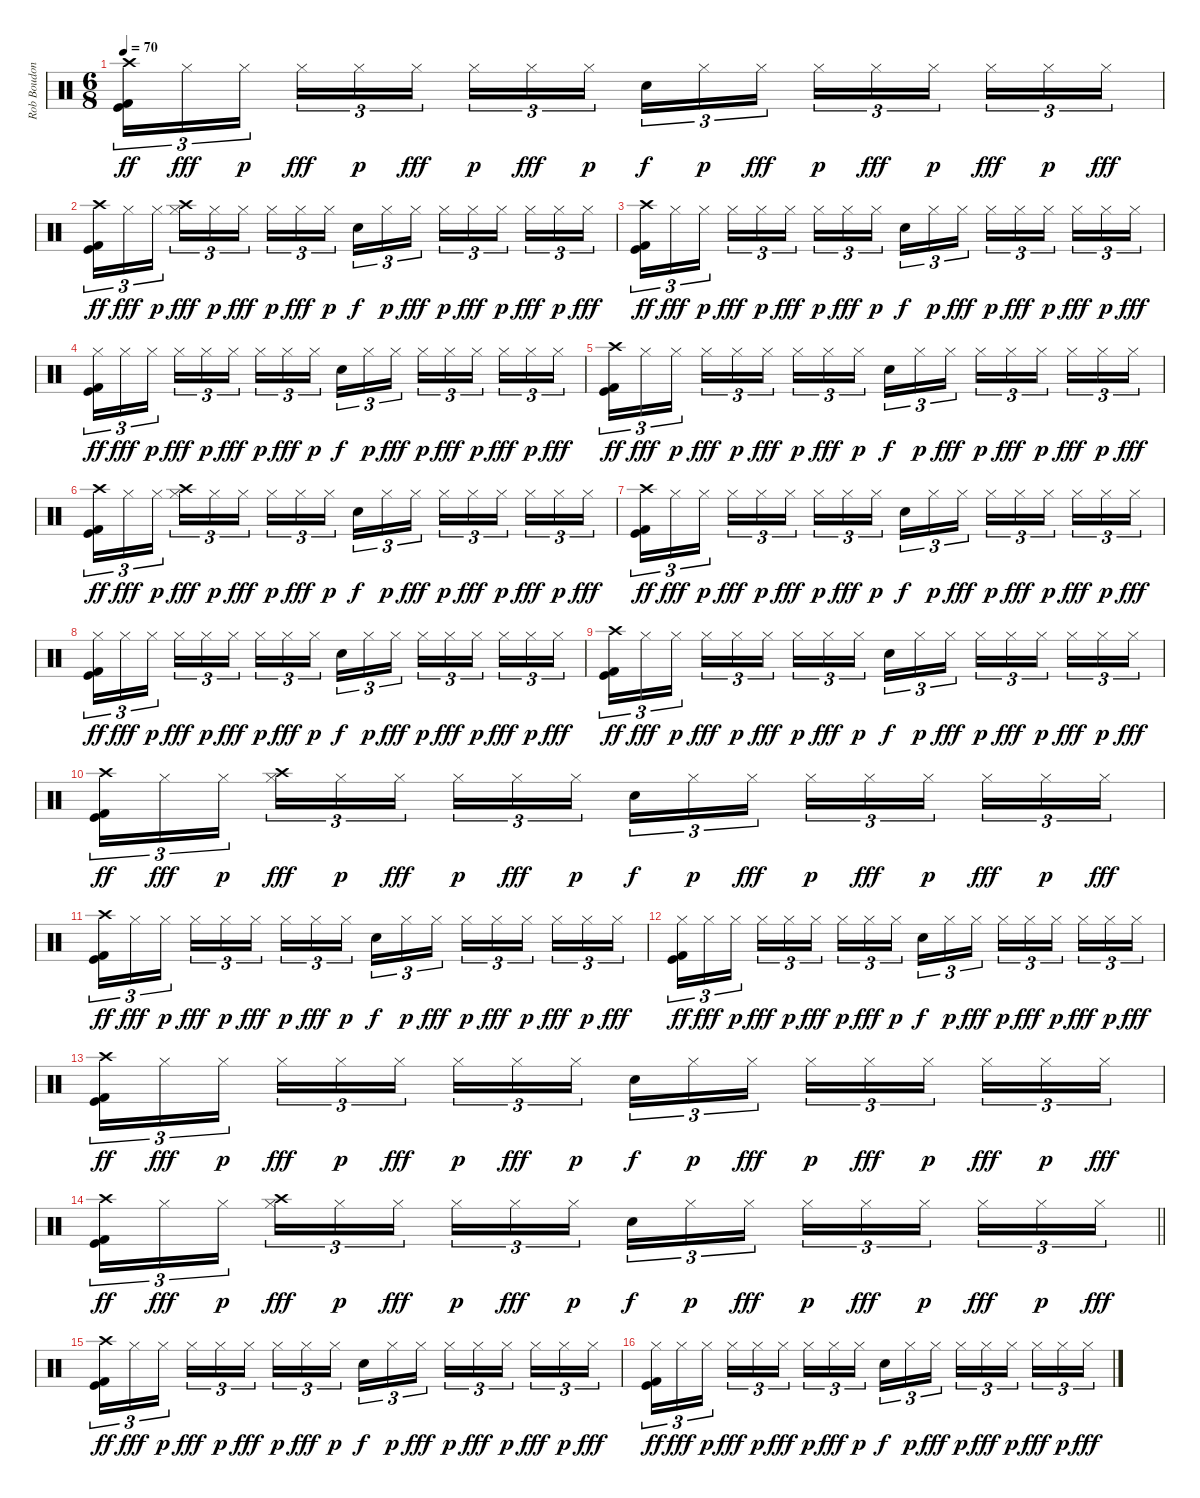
\track ("Rob Boudon [Drums]" "Rob Boudon") {instrument percussion}
\staff {score}
\articulation defaults
\ts (6 8)
\tempo 70
\clef neutral
\ks c
("Crash high (hit)" "Kick (hit) 2" "Kick (hit)").16{tu (3 2) dy ff} "Hi-Hat (closed)".16{tu (3 2) dy fff} "Hi-Hat (closed)".16{tu (3 2) dy p beam splitsecondary} "Hi-Hat (closed)".16{tu (3 2) dy fff} "Hi-Hat (closed)".16{tu (3 2) dy p} "Hi-Hat (closed)".16{tu (3 2) dy fff beam splitsecondary} "Hi-Hat (closed)".16{tu (3 2) dy p} "Hi-Hat (closed)".16{tu (3 2) dy fff} "Hi-Hat (closed)".16{tu (3 2) dy p} "Electric Snare (hit)".16{tu (3 2) dy f} "Hi-Hat (closed)".16{tu (3 2) dy p} "Hi-Hat (closed)".16{tu (3 2) dy fff beam splitsecondary} "Hi-Hat (closed)".16{tu (3 2) dy p} "Hi-Hat (closed)".16{tu (3 2) dy fff} "Hi-Hat (closed)".16{tu (3 2) dy p beam splitsecondary} "Hi-Hat (closed)".16{tu (3 2) dy fff} "Hi-Hat (closed)".16{tu (3 2) dy p} "Hi-Hat (closed)".16{tu (3 2) dy fff} |
("Crash high (hit)" "Kick (hit) 2" "Kick (hit)").16{tu (3 2) dy ff} "Hi-Hat (closed)".16{tu (3 2) dy fff} "Hi-Hat (closed)".16{tu (3 2) dy p beam splitsecondary} ("Crash high (hit)" "Hi-Hat (closed)").16{tu (3 2) dy fff} "Hi-Hat (closed)".16{tu (3 2) dy p} "Hi-Hat (closed)".16{tu (3 2) dy fff beam splitsecondary} "Hi-Hat (closed)".16{tu (3 2) dy p} "Hi-Hat (closed)".16{tu (3 2) dy fff} "Hi-Hat (closed)".16{tu (3 2) dy p} "Electric Snare (hit)".16{tu (3 2) dy f} "Hi-Hat (closed)".16{tu (3 2) dy p} "Hi-Hat (closed)".16{tu (3 2) dy fff beam splitsecondary} "Hi-Hat (closed)".16{tu (3 2) dy p} "Hi-Hat (closed)".16{tu (3 2) dy fff} "Hi-Hat (closed)".16{tu (3 2) dy p beam splitsecondary} "Hi-Hat (closed)".16{tu (3 2) dy fff} "Hi-Hat (closed)".16{tu (3 2) dy p} "Hi-Hat (closed)".16{tu (3 2) dy fff} |
("Crash high (hit)" "Kick (hit) 2" "Kick (hit)").16{tu (3 2) dy ff} "Hi-Hat (closed)".16{tu (3 2) dy fff} "Hi-Hat (closed)".16{tu (3 2) dy p beam splitsecondary} "Hi-Hat (closed)".16{tu (3 2) dy fff} "Hi-Hat (closed)".16{tu (3 2) dy p} "Hi-Hat (closed)".16{tu (3 2) dy fff beam splitsecondary} "Hi-Hat (closed)".16{tu (3 2) dy p} "Hi-Hat (closed)".16{tu (3 2) dy fff} "Hi-Hat (closed)".16{tu (3 2) dy p} "Electric Snare (hit)".16{tu (3 2) dy f} "Hi-Hat (closed)".16{tu (3 2) dy p} "Hi-Hat (closed)".16{tu (3 2) dy fff beam splitsecondary} "Hi-Hat (closed)".16{tu (3 2) dy p} "Hi-Hat (closed)".16{tu (3 2) dy fff} "Hi-Hat (closed)".16{tu (3 2) dy p beam splitsecondary} "Hi-Hat (closed)".16{tu (3 2) dy fff} "Hi-Hat (closed)".16{tu (3 2) dy p} "Hi-Hat (closed)".16{tu (3 2) dy fff} |
("Hi-Hat (closed)" "Kick (hit) 2" "Kick (hit)").16{tu (3 2) dy ff} "Hi-Hat (closed)".16{tu (3 2) dy fff} "Hi-Hat (closed)".16{tu (3 2) dy p beam splitsecondary} "Hi-Hat (closed)".16{tu (3 2) dy fff} "Hi-Hat (closed)".16{tu (3 2) dy p} "Hi-Hat (closed)".16{tu (3 2) dy fff beam splitsecondary} "Hi-Hat (closed)".16{tu (3 2) dy p} "Hi-Hat (closed)".16{tu (3 2) dy fff} "Hi-Hat (closed)".16{tu (3 2) dy p} "Electric Snare (hit)".16{tu (3 2) dy f} "Hi-Hat (closed)".16{tu (3 2) dy p} "Hi-Hat (closed)".16{tu (3 2) dy fff beam splitsecondary} "Hi-Hat (closed)".16{tu (3 2) dy p} "Hi-Hat (closed)".16{tu (3 2) dy fff} "Hi-Hat (closed)".16{tu (3 2) dy p beam splitsecondary} "Hi-Hat (closed)".16{tu (3 2) dy fff} "Hi-Hat (closed)".16{tu (3 2) dy p} "Hi-Hat (closed)".16{tu (3 2) dy fff} |
("Crash high (hit)" "Kick (hit) 2" "Kick (hit)").16{tu (3 2) dy ff} "Hi-Hat (closed)".16{tu (3 2) dy fff} "Hi-Hat (closed)".16{tu (3 2) dy p beam splitsecondary} "Hi-Hat (closed)".16{tu (3 2) dy fff} "Hi-Hat (closed)".16{tu (3 2) dy p} "Hi-Hat (closed)".16{tu (3 2) dy fff beam splitsecondary} "Hi-Hat (closed)".16{tu (3 2) dy p} "Hi-Hat (closed)".16{tu (3 2) dy fff} "Hi-Hat (closed)".16{tu (3 2) dy p} "Electric Snare (hit)".16{tu (3 2) dy f} "Hi-Hat (closed)".16{tu (3 2) dy p} "Hi-Hat (closed)".16{tu (3 2) dy fff beam splitsecondary} "Hi-Hat (closed)".16{tu (3 2) dy p} "Hi-Hat (closed)".16{tu (3 2) dy fff} "Hi-Hat (closed)".16{tu (3 2) dy p beam splitsecondary} "Hi-Hat (closed)".16{tu (3 2) dy fff} "Hi-Hat (closed)".16{tu (3 2) dy p} "Hi-Hat (closed)".16{tu (3 2) dy fff} |
("Crash high (hit)" "Kick (hit) 2" "Kick (hit)").16{tu (3 2) dy ff} "Hi-Hat (closed)".16{tu (3 2) dy fff} "Hi-Hat (closed)".16{tu (3 2) dy p beam splitsecondary} ("Crash high (hit)" "Hi-Hat (closed)").16{tu (3 2) dy fff} "Hi-Hat (closed)".16{tu (3 2) dy p} "Hi-Hat (closed)".16{tu (3 2) dy fff beam splitsecondary} "Hi-Hat (closed)".16{tu (3 2) dy p} "Hi-Hat (closed)".16{tu (3 2) dy fff} "Hi-Hat (closed)".16{tu (3 2) dy p} "Electric Snare (hit)".16{tu (3 2) dy f} "Hi-Hat (closed)".16{tu (3 2) dy p} "Hi-Hat (closed)".16{tu (3 2) dy fff beam splitsecondary} "Hi-Hat (closed)".16{tu (3 2) dy p} "Hi-Hat (closed)".16{tu (3 2) dy fff} "Hi-Hat (closed)".16{tu (3 2) dy p beam splitsecondary} "Hi-Hat (closed)".16{tu (3 2) dy fff} "Hi-Hat (closed)".16{tu (3 2) dy p} "Hi-Hat (closed)".16{tu (3 2) dy fff} |
("Crash high (hit)" "Kick (hit) 2" "Kick (hit)").16{tu (3 2) dy ff} "Hi-Hat (closed)".16{tu (3 2) dy fff} "Hi-Hat (closed)".16{tu (3 2) dy p beam splitsecondary} "Hi-Hat (closed)".16{tu (3 2) dy fff} "Hi-Hat (closed)".16{tu (3 2) dy p} "Hi-Hat (closed)".16{tu (3 2) dy fff beam splitsecondary} "Hi-Hat (closed)".16{tu (3 2) dy p} "Hi-Hat (closed)".16{tu (3 2) dy fff} "Hi-Hat (closed)".16{tu (3 2) dy p} "Electric Snare (hit)".16{tu (3 2) dy f} "Hi-Hat (closed)".16{tu (3 2) dy p} "Hi-Hat (closed)".16{tu (3 2) dy fff beam splitsecondary} "Hi-Hat (closed)".16{tu (3 2) dy p} "Hi-Hat (closed)".16{tu (3 2) dy fff} "Hi-Hat (closed)".16{tu (3 2) dy p beam splitsecondary} "Hi-Hat (closed)".16{tu (3 2) dy fff} "Hi-Hat (closed)".16{tu (3 2) dy p} "Hi-Hat (closed)".16{tu (3 2) dy fff} |
("Hi-Hat (closed)" "Kick (hit) 2" "Kick (hit)").16{tu (3 2) dy ff} "Hi-Hat (closed)".16{tu (3 2) dy fff} "Hi-Hat (closed)".16{tu (3 2) dy p beam splitsecondary} "Hi-Hat (closed)".16{tu (3 2) dy fff} "Hi-Hat (closed)".16{tu (3 2) dy p} "Hi-Hat (closed)".16{tu (3 2) dy fff beam splitsecondary} "Hi-Hat (closed)".16{tu (3 2) dy p} "Hi-Hat (closed)".16{tu (3 2) dy fff} "Hi-Hat (closed)".16{tu (3 2) dy p} "Electric Snare (hit)".16{tu (3 2) dy f} "Hi-Hat (closed)".16{tu (3 2) dy p} "Hi-Hat (closed)".16{tu (3 2) dy fff beam splitsecondary} "Hi-Hat (closed)".16{tu (3 2) dy p} "Hi-Hat (closed)".16{tu (3 2) dy fff} "Hi-Hat (closed)".16{tu (3 2) dy p beam splitsecondary} "Hi-Hat (closed)".16{tu (3 2) dy fff} "Hi-Hat (closed)".16{tu (3 2) dy p} "Hi-Hat (closed)".16{tu (3 2) dy fff} |
("Crash high (hit)" "Kick (hit) 2" "Kick (hit)").16{tu (3 2) dy ff} "Hi-Hat (closed)".16{tu (3 2) dy fff} "Hi-Hat (closed)".16{tu (3 2) dy p beam splitsecondary} "Hi-Hat (closed)".16{tu (3 2) dy fff} "Hi-Hat (closed)".16{tu (3 2) dy p} "Hi-Hat (closed)".16{tu (3 2) dy fff beam splitsecondary} "Hi-Hat (closed)".16{tu (3 2) dy p} "Hi-Hat (closed)".16{tu (3 2) dy fff} "Hi-Hat (closed)".16{tu (3 2) dy p} "Electric Snare (hit)".16{tu (3 2) dy f} "Hi-Hat (closed)".16{tu (3 2) dy p} "Hi-Hat (closed)".16{tu (3 2) dy fff beam splitsecondary} "Hi-Hat (closed)".16{tu (3 2) dy p} "Hi-Hat (closed)".16{tu (3 2) dy fff} "Hi-Hat (closed)".16{tu (3 2) dy p beam splitsecondary} "Hi-Hat (closed)".16{tu (3 2) dy fff} "Hi-Hat (closed)".16{tu (3 2) dy p} "Hi-Hat (closed)".16{tu (3 2) dy fff} |
("Crash high (hit)" "Kick (hit) 2" "Kick (hit)").16{tu (3 2) dy ff} "Hi-Hat (closed)".16{tu (3 2) dy fff} "Hi-Hat (closed)".16{tu (3 2) dy p beam splitsecondary} ("Crash high (hit)" "Hi-Hat (closed)").16{tu (3 2) dy fff} "Hi-Hat (closed)".16{tu (3 2) dy p} "Hi-Hat (closed)".16{tu (3 2) dy fff beam splitsecondary} "Hi-Hat (closed)".16{tu (3 2) dy p} "Hi-Hat (closed)".16{tu (3 2) dy fff} "Hi-Hat (closed)".16{tu (3 2) dy p} "Electric Snare (hit)".16{tu (3 2) dy f} "Hi-Hat (closed)".16{tu (3 2) dy p} "Hi-Hat (closed)".16{tu (3 2) dy fff beam splitsecondary} "Hi-Hat (closed)".16{tu (3 2) dy p} "Hi-Hat (closed)".16{tu (3 2) dy fff} "Hi-Hat (closed)".16{tu (3 2) dy p beam splitsecondary} "Hi-Hat (closed)".16{tu (3 2) dy fff} "Hi-Hat (closed)".16{tu (3 2) dy p} "Hi-Hat (closed)".16{tu (3 2) dy fff} |
("Crash high (hit)" "Kick (hit) 2" "Kick (hit)").16{tu (3 2) dy ff} "Hi-Hat (closed)".16{tu (3 2) dy fff} "Hi-Hat (closed)".16{tu (3 2) dy p beam splitsecondary} "Hi-Hat (closed)".16{tu (3 2) dy fff} "Hi-Hat (closed)".16{tu (3 2) dy p} "Hi-Hat (closed)".16{tu (3 2) dy fff beam splitsecondary} "Hi-Hat (closed)".16{tu (3 2) dy p} "Hi-Hat (closed)".16{tu (3 2) dy fff} "Hi-Hat (closed)".16{tu (3 2) dy p} "Electric Snare (hit)".16{tu (3 2) dy f} "Hi-Hat (closed)".16{tu (3 2) dy p} "Hi-Hat (closed)".16{tu (3 2) dy fff beam splitsecondary} "Hi-Hat (closed)".16{tu (3 2) dy p} "Hi-Hat (closed)".16{tu (3 2) dy fff} "Hi-Hat (closed)".16{tu (3 2) dy p beam splitsecondary} "Hi-Hat (closed)".16{tu (3 2) dy fff} "Hi-Hat (closed)".16{tu (3 2) dy p} "Hi-Hat (closed)".16{tu (3 2) dy fff} |
("Hi-Hat (closed)" "Kick (hit) 2" "Kick (hit)").16{tu (3 2) dy ff} "Hi-Hat (closed)".16{tu (3 2) dy fff} "Hi-Hat (closed)".16{tu (3 2) dy p beam splitsecondary} "Hi-Hat (closed)".16{tu (3 2) dy fff} "Hi-Hat (closed)".16{tu (3 2) dy p} "Hi-Hat (closed)".16{tu (3 2) dy fff beam splitsecondary} "Hi-Hat (closed)".16{tu (3 2) dy p} "Hi-Hat (closed)".16{tu (3 2) dy fff} "Hi-Hat (closed)".16{tu (3 2) dy p} "Electric Snare (hit)".16{tu (3 2) dy f} "Hi-Hat (closed)".16{tu (3 2) dy p} "Hi-Hat (closed)".16{tu (3 2) dy fff beam splitsecondary} "Hi-Hat (closed)".16{tu (3 2) dy p} "Hi-Hat (closed)".16{tu (3 2) dy fff} "Hi-Hat (closed)".16{tu (3 2) dy p beam splitsecondary} "Hi-Hat (closed)".16{tu (3 2) dy fff} "Hi-Hat (closed)".16{tu (3 2) dy p} "Hi-Hat (closed)".16{tu (3 2) dy fff} |
("Crash high (hit)" "Kick (hit) 2" "Kick (hit)").16{tu (3 2) dy ff} "Hi-Hat (closed)".16{tu (3 2) dy fff} "Hi-Hat (closed)".16{tu (3 2) dy p beam splitsecondary} "Hi-Hat (closed)".16{tu (3 2) dy fff} "Hi-Hat (closed)".16{tu (3 2) dy p} "Hi-Hat (closed)".16{tu (3 2) dy fff beam splitsecondary} "Hi-Hat (closed)".16{tu (3 2) dy p} "Hi-Hat (closed)".16{tu (3 2) dy fff} "Hi-Hat (closed)".16{tu (3 2) dy p} "Electric Snare (hit)".16{tu (3 2) dy f} "Hi-Hat (closed)".16{tu (3 2) dy p} "Hi-Hat (closed)".16{tu (3 2) dy fff beam splitsecondary} "Hi-Hat (closed)".16{tu (3 2) dy p} "Hi-Hat (closed)".16{tu (3 2) dy fff} "Hi-Hat (closed)".16{tu (3 2) dy p beam splitsecondary} "Hi-Hat (closed)".16{tu (3 2) dy fff} "Hi-Hat (closed)".16{tu (3 2) dy p} "Hi-Hat (closed)".16{tu (3 2) dy fff} |
\barLineRight lightlight
("Crash high (hit)" "Kick (hit) 2" "Kick (hit)").16{tu (3 2) dy ff} "Hi-Hat (closed)".16{tu (3 2) dy fff} "Hi-Hat (closed)".16{tu (3 2) dy p beam splitsecondary} ("Crash high (hit)" "Hi-Hat (closed)").16{tu (3 2) dy fff} "Hi-Hat (closed)".16{tu (3 2) dy p} "Hi-Hat (closed)".16{tu (3 2) dy fff beam splitsecondary} "Hi-Hat (closed)".16{tu (3 2) dy p} "Hi-Hat (closed)".16{tu (3 2) dy fff} "Hi-Hat (closed)".16{tu (3 2) dy p} "Electric Snare (hit)".16{tu (3 2) dy f} "Hi-Hat (closed)".16{tu (3 2) dy p} "Hi-Hat (closed)".16{tu (3 2) dy fff beam splitsecondary} "Hi-Hat (closed)".16{tu (3 2) dy p} "Hi-Hat (closed)".16{tu (3 2) dy fff} "Hi-Hat (closed)".16{tu (3 2) dy p beam splitsecondary} "Hi-Hat (closed)".16{tu (3 2) dy fff} "Hi-Hat (closed)".16{tu (3 2) dy p} "Hi-Hat (closed)".16{tu (3 2) dy fff} |
("Crash high (hit)" "Kick (hit) 2" "Kick (hit)").16{tu (3 2) dy ff} "Hi-Hat (closed)".16{tu (3 2) dy fff} "Hi-Hat (closed)".16{tu (3 2) dy p beam splitsecondary} "Hi-Hat (closed)".16{tu (3 2) dy fff} "Hi-Hat (closed)".16{tu (3 2) dy p} "Hi-Hat (closed)".16{tu (3 2) dy fff beam splitsecondary} "Hi-Hat (closed)".16{tu (3 2) dy p} "Hi-Hat (closed)".16{tu (3 2) dy fff} "Hi-Hat (closed)".16{tu (3 2) dy p} "Electric Snare (hit)".16{tu (3 2) dy f} "Hi-Hat (closed)".16{tu (3 2) dy p} "Hi-Hat (closed)".16{tu (3 2) dy fff beam splitsecondary} "Hi-Hat (closed)".16{tu (3 2) dy p} "Hi-Hat (closed)".16{tu (3 2) dy fff} "Hi-Hat (closed)".16{tu (3 2) dy p beam splitsecondary} "Hi-Hat (closed)".16{tu (3 2) dy fff} "Hi-Hat (closed)".16{tu (3 2) dy p} "Hi-Hat (closed)".16{tu (3 2) dy fff} |
("Hi-Hat (closed)" "Kick (hit) 2" "Kick (hit)").16{tu (3 2) dy ff} "Hi-Hat (closed)".16{tu (3 2) dy fff} "Hi-Hat (closed)".16{tu (3 2) dy p beam splitsecondary} "Hi-Hat (closed)".16{tu (3 2) dy fff} "Hi-Hat (closed)".16{tu (3 2) dy p} "Hi-Hat (closed)".16{tu (3 2) dy fff beam splitsecondary} "Hi-Hat (closed)".16{tu (3 2) dy p} "Hi-Hat (closed)".16{tu (3 2) dy fff} "Hi-Hat (closed)".16{tu (3 2) dy p} "Electric Snare (hit)".16{tu (3 2) dy f} "Hi-Hat (closed)".16{tu (3 2) dy p} "Hi-Hat (closed)".16{tu (3 2) dy fff beam splitsecondary} "Hi-Hat (closed)".16{tu (3 2) dy p} "Hi-Hat (closed)".16{tu (3 2) dy fff} "Hi-Hat (closed)".16{tu (3 2) dy p beam splitsecondary} "Hi-Hat (closed)".16{tu (3 2) dy fff} "Hi-Hat (closed)".16{tu (3 2) dy p} "Hi-Hat (closed)".16{tu (3 2) dy fff}
